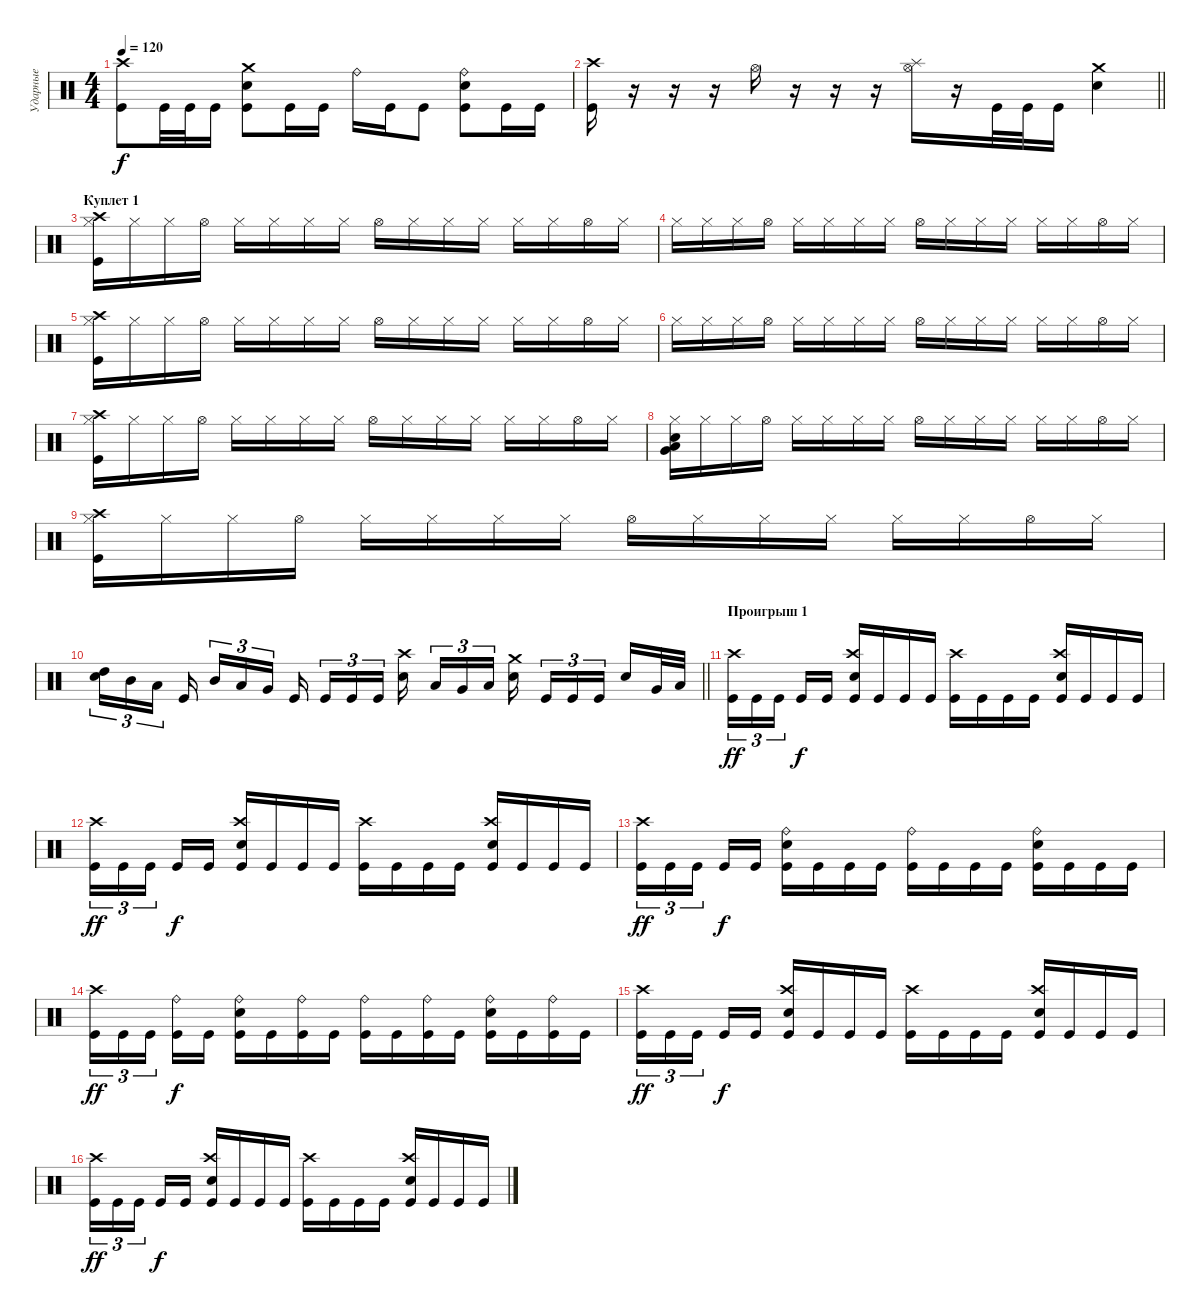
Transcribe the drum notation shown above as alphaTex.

\track ("Ударные" "Ударные") {instrument percussion}
\staff {score}
\articulation defaults
\ts (4 4)
\tempo 120
\clef neutral
\ks c
("Kick (hit)" "Crash high (hit)").8{dy f} "Kick (hit)".32 "Kick (hit)".32 "Kick (hit)".16 ("Kick (hit)" "Snare (hit) 2" "Crash medium (hit)").8 "Kick (hit)".16 "Kick (hit)".16 "Ride (bell)".16 "Kick (hit)".16 "Kick (hit)".8 ("Kick (hit)" "Snare (hit) 2" "Ride (bell)").8 "Kick (hit)".16 "Kick (hit)".16 |
\barLineRight lightlight
("Kick (hit)" "Crash high (hit)").16 r.16 r.16 r.16 "Hi-Hat (open)".16 r.16 r.16 r.16 ("Hi-Hat (open)" "Splash (hit)").16 r.16 "Kick (hit)".32 "Kick (hit)".32 "Kick (hit)".16 ("Snare (hit) 2" "Crash medium (hit)").4 |
\section ("" "Куплет 1")
("Crash high (hit)" "Kick (hit)" "Hi-Hat (closed)").16 "Hi-Hat (closed)".16 "Hi-Hat (closed)".16 "Hi-Hat (open)".16 "Hi-Hat (closed)".16 "Hi-Hat (closed)".16 "Hi-Hat (closed)".16 "Hi-Hat (closed)".16 "Hi-Hat (open)".16 "Hi-Hat (closed)".16 "Hi-Hat (closed)".16 "Hi-Hat (closed)".16 "Hi-Hat (closed)".16 "Hi-Hat (closed)".16 "Hi-Hat (open)".16 "Hi-Hat (closed)".16 |
"Hi-Hat (closed)".16 "Hi-Hat (closed)".16 "Hi-Hat (closed)".16 "Hi-Hat (open)".16 "Hi-Hat (closed)".16 "Hi-Hat (closed)".16 "Hi-Hat (closed)".16 "Hi-Hat (closed)".16 "Hi-Hat (open)".16 "Hi-Hat (closed)".16 "Hi-Hat (closed)".16 "Hi-Hat (closed)".16 "Hi-Hat (closed)".16 "Hi-Hat (closed)".16 "Hi-Hat (open)".16 "Hi-Hat (closed)".16 |
("Crash high (hit)" "Kick (hit)" "Hi-Hat (closed)").16 "Hi-Hat (closed)".16 "Hi-Hat (closed)".16 "Hi-Hat (open)".16 "Hi-Hat (closed)".16 "Hi-Hat (closed)".16 "Hi-Hat (closed)".16 "Hi-Hat (closed)".16 "Hi-Hat (open)".16 "Hi-Hat (closed)".16 "Hi-Hat (closed)".16 "Hi-Hat (closed)".16 "Hi-Hat (closed)".16 "Hi-Hat (closed)".16 "Hi-Hat (open)".16 "Hi-Hat (closed)".16 |
"Hi-Hat (closed)".16 "Hi-Hat (closed)".16 "Hi-Hat (closed)".16 "Hi-Hat (open)".16 "Hi-Hat (closed)".16 "Hi-Hat (closed)".16 "Hi-Hat (closed)".16 "Hi-Hat (closed)".16 "Hi-Hat (open)".16 "Hi-Hat (closed)".16 "Hi-Hat (closed)".16 "Hi-Hat (closed)".16 "Hi-Hat (closed)".16 "Hi-Hat (closed)".16 "Hi-Hat (open)".16 "Hi-Hat (closed)".16 |
("Crash high (hit)" "Kick (hit)" "Hi-Hat (closed)").16 "Hi-Hat (closed)".16 "Hi-Hat (closed)".16 "Hi-Hat (open)".16 "Hi-Hat (closed)".16 "Hi-Hat (closed)".16 "Hi-Hat (closed)".16 "Hi-Hat (closed)".16 "Hi-Hat (open)".16 "Hi-Hat (closed)".16 "Hi-Hat (closed)".16 "Hi-Hat (closed)".16 "Hi-Hat (closed)".16 "Hi-Hat (closed)".16 "Hi-Hat (open)".16 "Hi-Hat (closed)".16 |
("Low Floor Tom (hit)" "Very Low Tom (hit)" "Snare (hit) 2" "Hi-Hat (closed)").16 "Hi-Hat (closed)".16 "Hi-Hat (closed)".16 "Hi-Hat (open)".16 "Hi-Hat (closed)".16 "Hi-Hat (closed)".16 "Hi-Hat (closed)".16 "Hi-Hat (closed)".16 "Hi-Hat (open)".16 "Hi-Hat (closed)".16 "Hi-Hat (closed)".16 "Hi-Hat (closed)".16 "Hi-Hat (closed)".16 "Hi-Hat (closed)".16 "Hi-Hat (open)".16 "Hi-Hat (closed)".16 |
("Crash high (hit)" "Kick (hit)" "Hi-Hat (closed)").16 "Hi-Hat (closed)".16 "Hi-Hat (closed)".16 "Hi-Hat (open)".16 "Hi-Hat (closed)".16 "Hi-Hat (closed)".16 "Hi-Hat (closed)".16 "Hi-Hat (closed)".16 "Hi-Hat (open)".16 "Hi-Hat (closed)".16 "Hi-Hat (closed)".16 "Hi-Hat (closed)".16 "Hi-Hat (closed)".16 "Hi-Hat (closed)".16 "Hi-Hat (open)".16 "Hi-Hat (closed)".16 |
\barLineRight lightlight
("High Tom (hit)" "Snare (hit) 2").16{tu (3 2)} "Mid Tom (hit)".16{tu (3 2)} "Low Tom (hit)".16{tu (3 2)} "Kick (hit)".16 "Mid Tom (hit)".16{tu (3 2)} "Low Tom (hit)".16{tu (3 2)} "Very Low Tom (hit)".16{tu (3 2)} "Kick (hit)".16 "Kick (hit)".16{tu (3 2)} "Kick (hit)".16{tu (3 2)} "Kick (hit)".16{tu (3 2)} ("Snare (hit) 2" "Crash high (hit)").16 "Low Tom (hit)".16{tu (3 2)} "Very Low Tom (hit)".16{tu (3 2)} "Low Floor Tom (hit)".16{tu (3 2)} ("Snare (hit) 2" "Crash medium (hit)").16 "Kick (hit)".16{tu (3 2)} "Kick (hit)".16{tu (3 2)} "Kick (hit)".16{tu (3 2)} "Snare (hit) 2".16 "Very Low Tom (hit)".32 "Low Floor Tom (hit)".32 |
\section ("" "Проигрыш 1")
("Kick (hit)" "Crash high (hit)").16{tu (3 2) dy ff} "Kick (hit)".16{tu (3 2)} "Kick (hit)".16{tu (3 2)} "Kick (hit)".16{dy f} "Kick (hit)".16 ("Kick (hit)" "Snare (hit) 2" "Crash high (hit)").16 "Kick (hit)".16 "Kick (hit)".16 "Kick (hit)".16 ("Kick (hit)" "Crash high (hit)").16 "Kick (hit)".16 "Kick (hit)".16 "Kick (hit)".16 ("Kick (hit)" "Snare (hit) 2" "Crash high (hit)").16 "Kick (hit)".16 "Kick (hit)".16 "Kick (hit)".16 |
("Kick (hit)" "Crash high (hit)").16{tu (3 2) dy ff} "Kick (hit)".16{tu (3 2)} "Kick (hit)".16{tu (3 2)} "Kick (hit)".16{dy f} "Kick (hit)".16 ("Kick (hit)" "Snare (hit) 2" "Crash high (hit)").16 "Kick (hit)".16 "Kick (hit)".16 "Kick (hit)".16 ("Kick (hit)" "Crash high (hit)").16 "Kick (hit)".16 "Kick (hit)".16 "Kick (hit)".16 ("Kick (hit)" "Snare (hit) 2" "Crash high (hit)").16 "Kick (hit)".16 "Kick (hit)".16 "Kick (hit)".16 |
("Kick (hit)" "Crash high (hit)").16{tu (3 2) dy ff} "Kick (hit)".16{tu (3 2)} "Kick (hit)".16{tu (3 2)} "Kick (hit)".16{dy f} "Kick (hit)".16 ("Kick (hit)" "Snare (hit) 2" "Ride (bell)").16 "Kick (hit)".16 "Kick (hit)".16 "Kick (hit)".16 ("Kick (hit)" "Ride (bell)").16 "Kick (hit)".16 "Kick (hit)".16 "Kick (hit)".16 ("Kick (hit)" "Snare (hit) 2" "Ride (bell)").16 "Kick (hit)".16 "Kick (hit)".16 "Kick (hit)".16 |
("Kick (hit)" "Crash high (hit)").16{tu (3 2) dy ff} "Kick (hit)".16{tu (3 2)} "Kick (hit)".16{tu (3 2)} ("Kick (hit)" "Ride (bell)").16{dy f} "Kick (hit)".16 ("Kick (hit)" "Snare (hit) 2" "Ride (bell)").16 "Kick (hit)".16 ("Kick (hit)" "Ride (bell)").16 "Kick (hit)".16 ("Kick (hit)" "Ride (bell)").16 "Kick (hit)".16 ("Kick (hit)" "Ride (bell)").16 "Kick (hit)".16 ("Kick (hit)" "Snare (hit) 2" "Ride (bell)").16 "Kick (hit)".16 ("Kick (hit)" "Ride (bell)").16 "Kick (hit)".16 |
("Kick (hit)" "Crash high (hit)").16{tu (3 2) dy ff} "Kick (hit)".16{tu (3 2)} "Kick (hit)".16{tu (3 2)} "Kick (hit)".16{dy f} "Kick (hit)".16 ("Kick (hit)" "Snare (hit) 2" "Crash high (hit)").16 "Kick (hit)".16 "Kick (hit)".16 "Kick (hit)".16 ("Kick (hit)" "Crash high (hit)").16 "Kick (hit)".16 "Kick (hit)".16 "Kick (hit)".16 ("Kick (hit)" "Snare (hit) 2" "Crash high (hit)").16 "Kick (hit)".16 "Kick (hit)".16 "Kick (hit)".16 |
("Kick (hit)" "Crash high (hit)").16{tu (3 2) dy ff} "Kick (hit)".16{tu (3 2)} "Kick (hit)".16{tu (3 2)} "Kick (hit)".16{dy f} "Kick (hit)".16 ("Kick (hit)" "Snare (hit) 2" "Crash high (hit)").16 "Kick (hit)".16 "Kick (hit)".16 "Kick (hit)".16 ("Kick (hit)" "Crash high (hit)").16 "Kick (hit)".16 "Kick (hit)".16 "Kick (hit)".16 ("Kick (hit)" "Snare (hit) 2" "Crash high (hit)").16 "Kick (hit)".16 "Kick (hit)".16 "Kick (hit)".16
